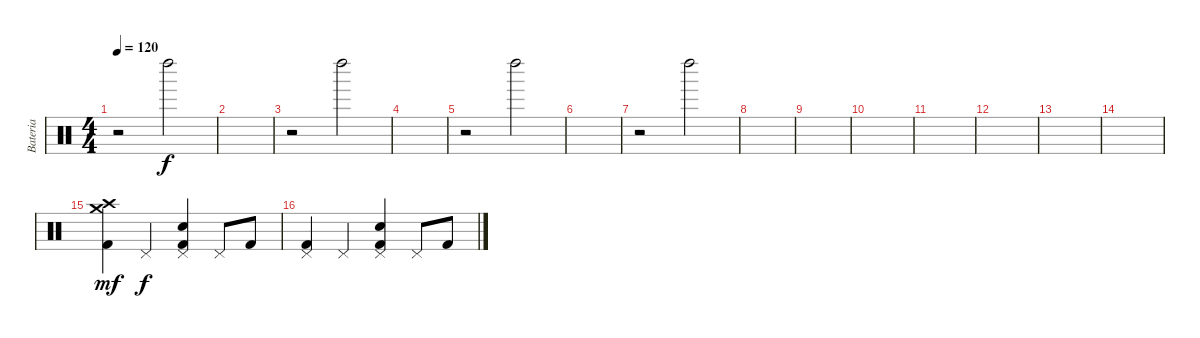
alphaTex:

\track ("Bateria" "Bateria") {instrument percussion}
\staff {score}
\articulation defaults
\ts (4 4)
\tempo 120
\clef neutral
\ks c
r.2{dy f} "Left Maraca (hit)".2 |
|
r.2 "Left Maraca (hit)".2 |
|
r.2 "Left Maraca (hit)".2 |
|
r.2 "Left Maraca (hit)".2 |
|
|
|
|
|
|
|
("Crash medium (hit)" "Crash high (hit)" "Kick (hit) 2").4{dy mf} "Pedal Hi-Hat (hit)".4{dy f} ("Pedal Hi-Hat (hit)" "Electric Snare (hit)" "Kick (hit) 2").4 "Pedal Hi-Hat (hit)".8 "Kick (hit) 2".8 |
("Pedal Hi-Hat (hit)" "Kick (hit) 2").4 "Pedal Hi-Hat (hit)".4 ("Pedal Hi-Hat (hit)" "Electric Snare (hit)" "Kick (hit) 2").4 "Pedal Hi-Hat (hit)".8 "Kick (hit) 2".8
